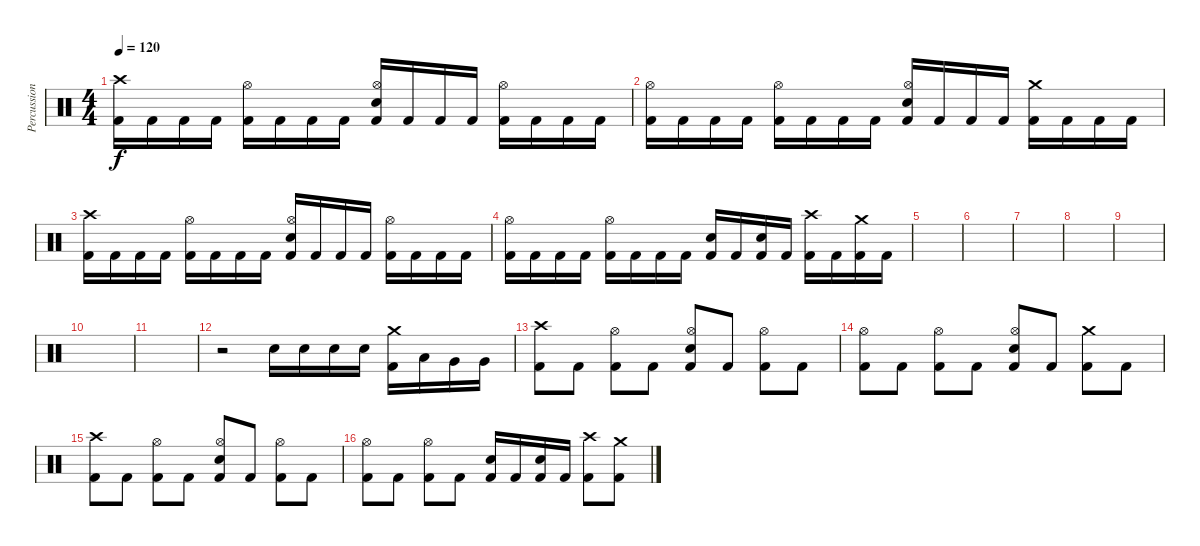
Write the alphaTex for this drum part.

\track ("Percussion" "Percussion") {instrument percussion}
\staff {score}
\articulation defaults
\ts (4 4)
\tempo 120
\clef neutral
\ks c
("Crash high (hit)" "Kick (hit) 2").16{dy f} "Kick (hit) 2".16 "Kick (hit) 2".16 "Kick (hit) 2".16 ("Hi-Hat (open)" "Kick (hit) 2").16 "Kick (hit) 2".16 "Kick (hit) 2".16 "Kick (hit) 2".16 ("Hi-Hat (open)" "Electric Snare (hit)" "Kick (hit) 2").16 "Kick (hit) 2".16 "Kick (hit) 2".16 "Kick (hit) 2".16 ("Hi-Hat (open)" "Kick (hit) 2").16 "Kick (hit) 2".16 "Kick (hit) 2".16 "Kick (hit) 2".16 |
("Hi-Hat (open)" "Kick (hit) 2").16 "Kick (hit) 2".16 "Kick (hit) 2".16 "Kick (hit) 2".16 ("Hi-Hat (open)" "Kick (hit) 2").16 "Kick (hit) 2".16 "Kick (hit) 2".16 "Kick (hit) 2".16 ("Hi-Hat (open)" "Electric Snare (hit)" "Kick (hit) 2").16 "Kick (hit) 2".16 "Kick (hit) 2".16 "Kick (hit) 2".16 ("Crash medium (hit)" "Kick (hit) 2").16 "Kick (hit) 2".16 "Kick (hit) 2".16 "Kick (hit) 2".16 |
("Crash high (hit)" "Kick (hit) 2").16 "Kick (hit) 2".16 "Kick (hit) 2".16 "Kick (hit) 2".16 ("Hi-Hat (open)" "Kick (hit) 2").16 "Kick (hit) 2".16 "Kick (hit) 2".16 "Kick (hit) 2".16 ("Hi-Hat (open)" "Electric Snare (hit)" "Kick (hit) 2").16 "Kick (hit) 2".16 "Kick (hit) 2".16 "Kick (hit) 2".16 ("Hi-Hat (open)" "Kick (hit) 2").16 "Kick (hit) 2".16 "Kick (hit) 2".16 "Kick (hit) 2".16 |
("Hi-Hat (open)" "Kick (hit) 2").16 "Kick (hit) 2".16 "Kick (hit) 2".16 "Kick (hit) 2".16 ("Hi-Hat (open)" "Kick (hit) 2").16 "Kick (hit) 2".16 "Kick (hit) 2".16 "Kick (hit) 2".16 ("Electric Snare (hit)" "Kick (hit) 2").16 "Kick (hit) 2".16 ("Electric Snare (hit)" "Kick (hit) 2").16 "Kick (hit) 2".16 ("Crash high (hit)" "Kick (hit) 2").16 "Kick (hit) 2".16 ("Crash medium (hit)" "Kick (hit) 2").16 "Kick (hit) 2".16 |
|
|
|
|
|
|
|
r.2 "Electric Snare (hit)".16 "Electric Snare (hit)".16 "Electric Snare (hit)".16 "Electric Snare (hit)".16 ("Crash medium (hit)" "Kick (hit) 2").16 "Low Tom (hit)".16 "Very Low Tom (hit)".16 "Very Low Tom (hit)".16 |
("Crash high (hit)" "Kick (hit) 2").8 "Kick (hit) 2".8 ("Hi-Hat (open)" "Kick (hit) 2").8 "Kick (hit) 2".8 ("Hi-Hat (open)" "Electric Snare (hit)" "Kick (hit) 2").8 "Kick (hit) 2".8 ("Hi-Hat (open)" "Kick (hit) 2").8 "Kick (hit) 2".8 |
("Hi-Hat (open)" "Kick (hit) 2").8 "Kick (hit) 2".8 ("Hi-Hat (open)" "Kick (hit) 2").8 "Kick (hit) 2".8 ("Hi-Hat (open)" "Electric Snare (hit)" "Kick (hit) 2").8 "Kick (hit) 2".8 ("Crash medium (hit)" "Kick (hit) 2").8 "Kick (hit) 2".8 |
("Crash high (hit)" "Kick (hit) 2").8 "Kick (hit) 2".8 ("Hi-Hat (open)" "Kick (hit) 2").8 "Kick (hit) 2".8 ("Hi-Hat (open)" "Electric Snare (hit)" "Kick (hit) 2").8 "Kick (hit) 2".8 ("Hi-Hat (open)" "Kick (hit) 2").8 "Kick (hit) 2".8 |
("Hi-Hat (open)" "Kick (hit) 2").8 "Kick (hit) 2".8 ("Hi-Hat (open)" "Kick (hit) 2").8 "Kick (hit) 2".8 ("Electric Snare (hit)" "Kick (hit) 2").16 "Kick (hit) 2".16 ("Electric Snare (hit)" "Kick (hit) 2").16 "Kick (hit) 2".16 ("Crash high (hit)" "Kick (hit) 2").8 ("Crash medium (hit)" "Kick (hit) 2").8
